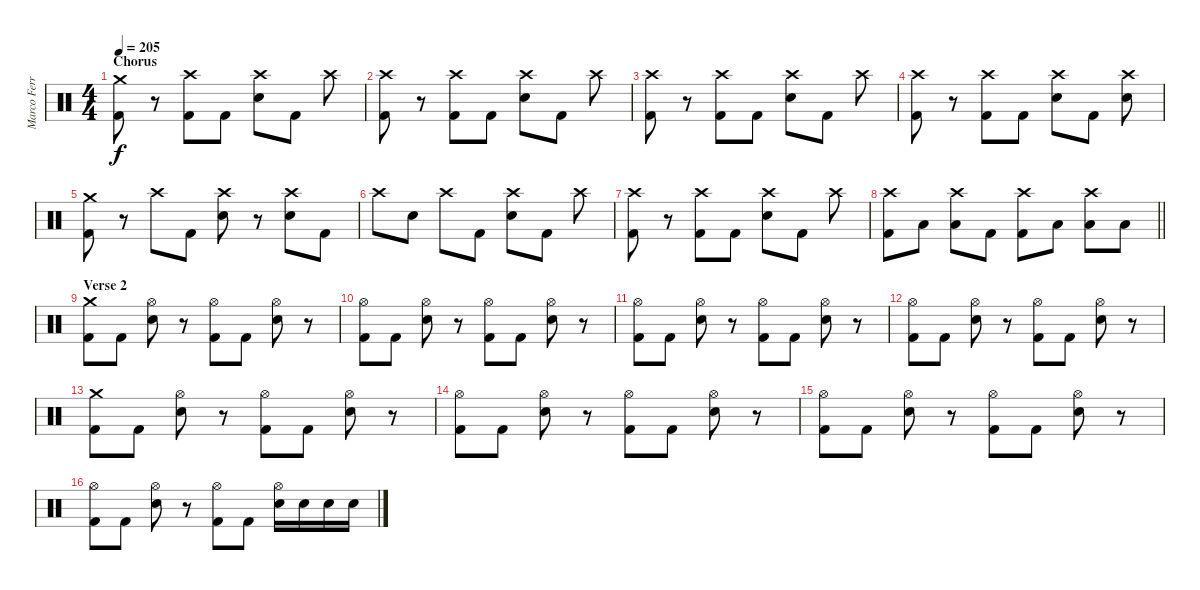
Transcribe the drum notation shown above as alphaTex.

\track ("Marco Ferro" "Marco Ferr") {instrument percussion}
\staff {score}
\articulation defaults
\ts (4 4)
\section ("" "Chorus")
\tempo 205
\clef neutral
\ks c
("Crash medium (hit)" "Kick (hit) 2").8{dy f} r.8 ("Crash high (hit)" "Kick (hit) 2").8 "Kick (hit) 2".8 ("Crash high (hit)" "Electric Snare (hit)").8 "Kick (hit) 2".8 "Crash high (hit)".8 |
("Crash high (hit)" "Kick (hit) 2").8 r.8 ("Crash high (hit)" "Kick (hit) 2").8 "Kick (hit) 2".8 ("Crash high (hit)" "Electric Snare (hit)").8 "Kick (hit) 2".8 "Crash high (hit)".8 |
("Crash high (hit)" "Kick (hit) 2").8 r.8 ("Crash high (hit)" "Kick (hit) 2").8 "Kick (hit) 2".8 ("Crash high (hit)" "Electric Snare (hit)").8 "Kick (hit) 2".8 "Crash high (hit)".8 |
("Crash high (hit)" "Kick (hit) 2").8 r.8 ("Crash high (hit)" "Kick (hit) 2").8 "Kick (hit) 2".8 ("Crash high (hit)" "Electric Snare (hit)").8 "Kick (hit) 2".8 ("Crash high (hit)" "Electric Snare (hit)").8 |
("Crash medium (hit)" "Kick (hit) 2").8 r.8 "Crash high (hit)".8 "Kick (hit) 2".8 ("Crash high (hit)" "Electric Snare (hit)").8 r.8 ("Crash high (hit)" "Electric Snare (hit)").8 "Kick (hit) 2".8 |
"Crash high (hit)".8 "Electric Snare (hit)".8 "Crash high (hit)".8 "Kick (hit) 2".8 ("Crash high (hit)" "Electric Snare (hit)").8 "Kick (hit) 2".8 "Crash high (hit)".8 |
("Crash high (hit)" "Kick (hit) 2").8 r.8 ("Crash high (hit)" "Kick (hit) 2").8 "Kick (hit) 2".8 ("Crash high (hit)" "Electric Snare (hit)").8 "Kick (hit) 2".8 "Crash high (hit)".8 |
\barLineRight lightlight
("Crash high (hit)" "Kick (hit) 2").8 "Low Tom (hit)".8 ("Crash high (hit)" "Low Tom (hit)").8 "Kick (hit) 2".8 ("Crash high (hit)" "Kick (hit) 2").8 "Low Tom (hit)".8 ("Crash high (hit)" "Low Tom (hit)").8 "Low Tom (hit)".8 |
\section ("" "Verse 2")
("Crash medium (hit)" "Kick (hit) 2").8 "Kick (hit) 2".8 ("Hi-Hat (open)" "Electric Snare (hit)").8 r.8 ("Hi-Hat (open)" "Kick (hit) 2").8 "Kick (hit) 2".8 ("Hi-Hat (open)" "Electric Snare (hit)").8 r.8 |
("Hi-Hat (open)" "Kick (hit) 2").8 "Kick (hit) 2".8 ("Hi-Hat (open)" "Electric Snare (hit)").8 r.8 ("Hi-Hat (open)" "Kick (hit) 2").8 "Kick (hit) 2".8 ("Hi-Hat (open)" "Electric Snare (hit)").8 r.8 |
("Hi-Hat (open)" "Kick (hit) 2").8 "Kick (hit) 2".8 ("Hi-Hat (open)" "Electric Snare (hit)").8 r.8 ("Hi-Hat (open)" "Kick (hit) 2").8 "Kick (hit) 2".8 ("Hi-Hat (open)" "Electric Snare (hit)").8 r.8 |
("Hi-Hat (open)" "Kick (hit) 2").8 "Kick (hit) 2".8 ("Hi-Hat (open)" "Electric Snare (hit)").8 r.8 ("Hi-Hat (open)" "Kick (hit) 2").8 "Kick (hit) 2".8 ("Hi-Hat (open)" "Electric Snare (hit)").8 r.8 |
("Crash medium (hit)" "Kick (hit) 2").8 "Kick (hit) 2".8 ("Hi-Hat (open)" "Electric Snare (hit)").8 r.8 ("Hi-Hat (open)" "Kick (hit) 2").8 "Kick (hit) 2".8 ("Hi-Hat (open)" "Electric Snare (hit)").8 r.8 |
("Hi-Hat (open)" "Kick (hit) 2").8 "Kick (hit) 2".8 ("Hi-Hat (open)" "Electric Snare (hit)").8 r.8 ("Hi-Hat (open)" "Kick (hit) 2").8 "Kick (hit) 2".8 ("Hi-Hat (open)" "Electric Snare (hit)").8 r.8 |
("Hi-Hat (open)" "Kick (hit) 2").8 "Kick (hit) 2".8 ("Hi-Hat (open)" "Electric Snare (hit)").8 r.8 ("Hi-Hat (open)" "Kick (hit) 2").8 "Kick (hit) 2".8 ("Hi-Hat (open)" "Electric Snare (hit)").8 r.8 |
("Hi-Hat (open)" "Kick (hit) 2").8 "Kick (hit) 2".8 ("Hi-Hat (open)" "Electric Snare (hit)").8 r.8 ("Hi-Hat (open)" "Kick (hit) 2").8 "Kick (hit) 2".8 ("Hi-Hat (open)" "Electric Snare (hit)").16 "Electric Snare (hit)".16 "Electric Snare (hit)".16 "Electric Snare (hit)".16
